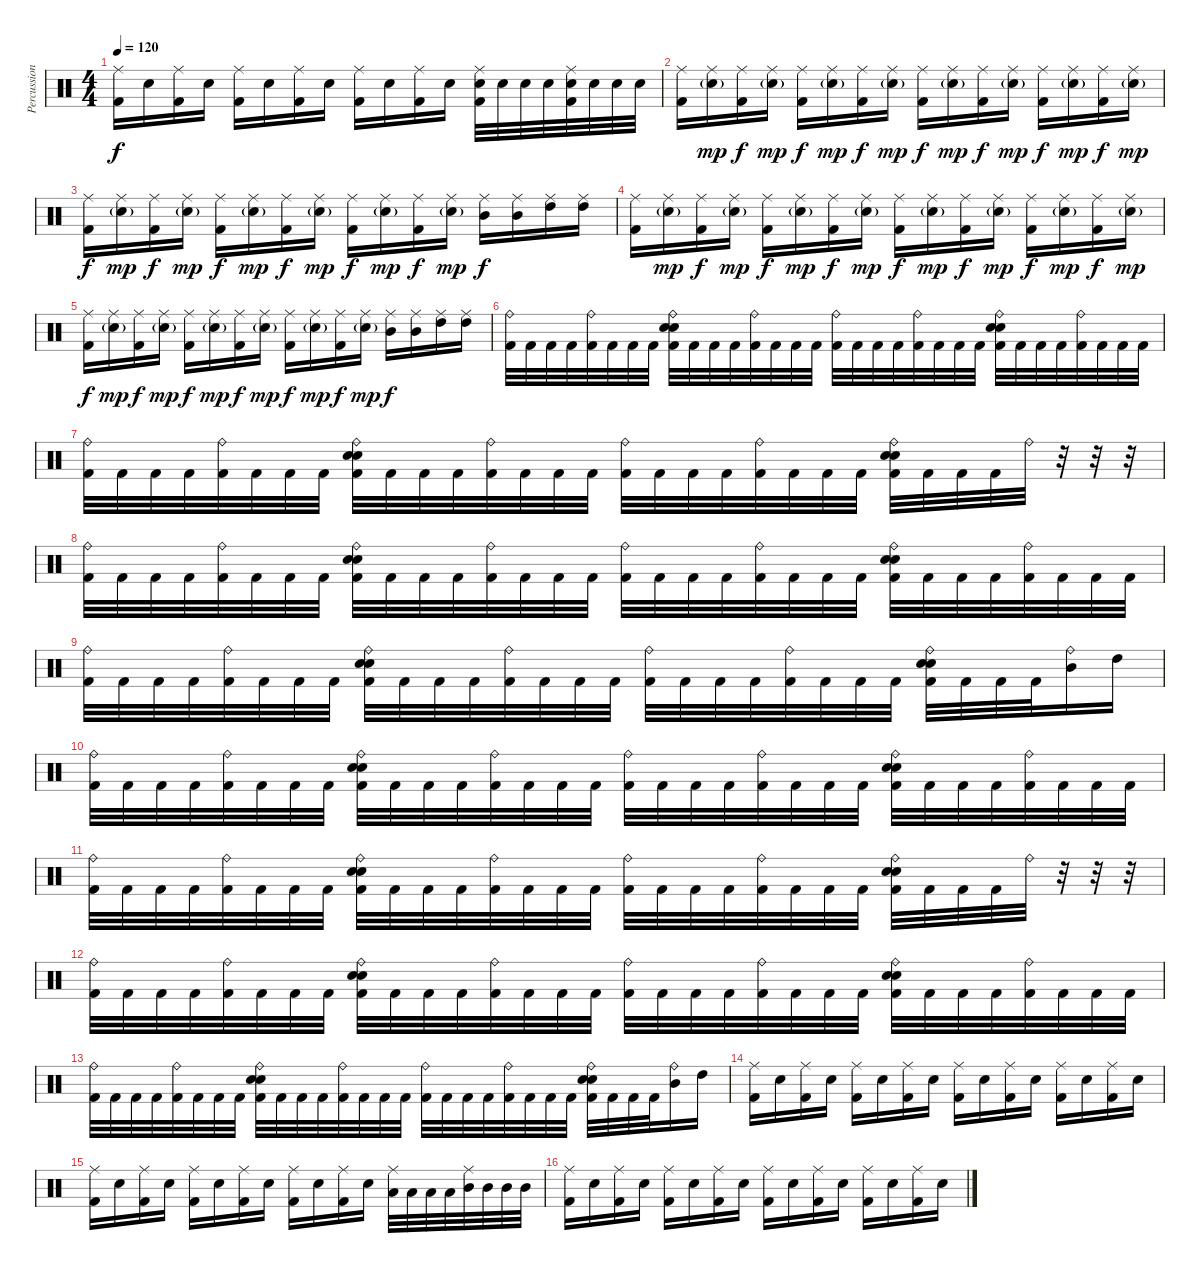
\track ("Percussion" "Percussion") {instrument percussion}
\staff {score}
\articulation defaults
\ts (4 4)
\tempo 120
\clef neutral
\ks c
("Ride (middle)" "Kick (hit) 2").16{dy f} "Snare (hit) 2".16 ("Ride (middle)" "Kick (hit) 2").16 "Snare (hit) 2".16 ("Ride (middle)" "Kick (hit) 2").16 "Snare (hit) 2".16 ("Ride (middle)" "Kick (hit) 2").16 "Snare (hit) 2".16 ("Ride (middle)" "Kick (hit) 2").16 "Snare (hit) 2".16 ("Ride (middle)" "Kick (hit) 2").16 "Snare (hit) 2".16 ("Ride (middle)" "Snare (hit) 2" "Kick (hit) 2").32 "Snare (hit) 2".32 "Snare (hit) 2".32 "Snare (hit) 2".32 ("Ride (middle)" "Snare (hit) 2" "Kick (hit) 2").32 "Snare (hit) 2".32 "Snare (hit) 2".32 "Snare (hit) 2".32 |
("Ride (middle)" "Kick (hit) 2").16 ("Ride (middle)" "Snare (hit) 2"{g}).16{dy mp} ("Ride (middle)" "Kick (hit) 2").16{dy f} ("Ride (middle)" "Snare (hit) 2"{g}).16{dy mp} ("Ride (middle)" "Kick (hit) 2").16{dy f} ("Ride (middle)" "Snare (hit) 2"{g}).16{dy mp} ("Ride (middle)" "Kick (hit) 2").16{dy f} ("Ride (middle)" "Snare (hit) 2"{g}).16{dy mp} ("Ride (middle)" "Kick (hit) 2").16{dy f} ("Ride (middle)" "Snare (hit) 2"{g}).16{dy mp} ("Ride (middle)" "Kick (hit) 2").16{dy f} ("Ride (middle)" "Snare (hit) 2"{g}).16{dy mp} ("Ride (middle)" "Kick (hit) 2").16{dy f} ("Ride (middle)" "Snare (hit) 2"{g}).16{dy mp} ("Ride (middle)" "Kick (hit) 2").16{dy f} ("Ride (middle)" "Snare (hit) 2"{g}).16{dy mp} |
("Ride (middle)" "Kick (hit) 2").16{dy f} ("Ride (middle)" "Snare (hit) 2"{g}).16{dy mp} ("Ride (middle)" "Kick (hit) 2").16{dy f} ("Ride (middle)" "Snare (hit) 2"{g}).16{dy mp} ("Ride (middle)" "Kick (hit) 2").16{dy f} ("Ride (middle)" "Snare (hit) 2"{g}).16{dy mp} ("Ride (middle)" "Kick (hit) 2").16{dy f} ("Ride (middle)" "Snare (hit) 2"{g}).16{dy mp} ("Ride (middle)" "Kick (hit) 2").16{dy f} ("Ride (middle)" "Snare (hit) 2"{g}).16{dy mp} ("Ride (middle)" "Kick (hit) 2").16{dy f} ("Ride (middle)" "Snare (hit) 2"{g}).16{dy mp} ("Ride (middle)" "Mid Tom (hit)").16{dy f} ("Ride (middle)" "Mid Tom (hit)").16 ("Ride (middle)" "High Tom (hit)").16 ("Ride (middle)" "High Tom (hit)").16 |
("Ride (middle)" "Kick (hit) 2").16 ("Ride (middle)" "Snare (hit) 2"{g}).16{dy mp} ("Ride (middle)" "Kick (hit) 2").16{dy f} ("Ride (middle)" "Snare (hit) 2"{g}).16{dy mp} ("Ride (middle)" "Kick (hit) 2").16{dy f} ("Ride (middle)" "Snare (hit) 2"{g}).16{dy mp} ("Ride (middle)" "Kick (hit) 2").16{dy f} ("Ride (middle)" "Snare (hit) 2"{g}).16{dy mp} ("Ride (middle)" "Kick (hit) 2").16{dy f} ("Ride (middle)" "Snare (hit) 2"{g}).16{dy mp} ("Ride (middle)" "Kick (hit) 2").16{dy f} ("Ride (middle)" "Snare (hit) 2"{g}).16{dy mp} ("Ride (middle)" "Kick (hit) 2").16{dy f} ("Ride (middle)" "Snare (hit) 2"{g}).16{dy mp} ("Ride (middle)" "Kick (hit) 2").16{dy f} ("Ride (middle)" "Snare (hit) 2"{g}).16{dy mp} |
("Ride (middle)" "Kick (hit) 2").16{dy f} ("Ride (middle)" "Snare (hit) 2"{g}).16{dy mp} ("Ride (middle)" "Kick (hit) 2").16{dy f} ("Ride (middle)" "Snare (hit) 2"{g}).16{dy mp} ("Ride (middle)" "Kick (hit) 2").16{dy f} ("Ride (middle)" "Snare (hit) 2"{g}).16{dy mp} ("Ride (middle)" "Kick (hit) 2").16{dy f} ("Ride (middle)" "Snare (hit) 2"{g}).16{dy mp} ("Ride (middle)" "Kick (hit) 2").16{dy f} ("Ride (middle)" "Snare (hit) 2"{g}).16{dy mp} ("Ride (middle)" "Kick (hit) 2").16{dy f} ("Ride (middle)" "Snare (hit) 2"{g}).16{dy mp} ("Ride (middle)" "Mid Tom (hit)").16{dy f} ("Ride (middle)" "Mid Tom (hit)").16 ("Ride (middle)" "High Tom (hit)").16 ("Ride (middle)" "High Tom (hit)").16 |
("Ride (bell)" "Kick (hit) 2").32 "Kick (hit) 2".32 "Kick (hit) 2".32 "Kick (hit) 2".32 ("Ride (bell)" "Kick (hit) 2").32 "Kick (hit) 2".32 "Kick (hit) 2".32 "Kick (hit) 2".32 ("Ride (bell)" "Electric Snare (hit)" "Snare (hit) 2" "Kick (hit) 2").32 "Kick (hit) 2".32 "Kick (hit) 2".32 "Kick (hit) 2".32 ("Ride (bell)" "Kick (hit) 2").32 "Kick (hit) 2".32 "Kick (hit) 2".32 "Kick (hit) 2".32 ("Ride (bell)" "Kick (hit) 2").32 "Kick (hit) 2".32 "Kick (hit) 2".32 "Kick (hit) 2".32 ("Ride (bell)" "Kick (hit) 2").32 "Kick (hit) 2".32 "Kick (hit) 2".32 "Kick (hit) 2".32 ("Ride (bell)" "Electric Snare (hit)" "Snare (hit) 2" "Kick (hit) 2").32 "Kick (hit) 2".32 "Kick (hit) 2".32 "Kick (hit) 2".32 ("Ride (bell)" "Kick (hit) 2").32 "Kick (hit) 2".32 "Kick (hit) 2".32 "Kick (hit) 2".32 |
("Ride (bell)" "Kick (hit) 2").32 "Kick (hit) 2".32 "Kick (hit) 2".32 "Kick (hit) 2".32 ("Ride (bell)" "Kick (hit) 2").32 "Kick (hit) 2".32 "Kick (hit) 2".32 "Kick (hit) 2".32 ("Ride (bell)" "Electric Snare (hit)" "Snare (hit) 2" "Kick (hit) 2").32 "Kick (hit) 2".32 "Kick (hit) 2".32 "Kick (hit) 2".32 ("Ride (bell)" "Kick (hit) 2").32 "Kick (hit) 2".32 "Kick (hit) 2".32 "Kick (hit) 2".32 ("Ride (bell)" "Kick (hit) 2").32 "Kick (hit) 2".32 "Kick (hit) 2".32 "Kick (hit) 2".32 ("Ride (bell)" "Kick (hit) 2").32 "Kick (hit) 2".32 "Kick (hit) 2".32 "Kick (hit) 2".32 ("Ride (bell)" "Electric Snare (hit)" "Snare (hit) 2" "Kick (hit) 2").32 "Kick (hit) 2".32 "Kick (hit) 2".32 "Kick (hit) 2".32 "Ride (bell)".32 r.32 r.32 r.32 |
("Ride (bell)" "Kick (hit) 2").32 "Kick (hit) 2".32 "Kick (hit) 2".32 "Kick (hit) 2".32 ("Ride (bell)" "Kick (hit) 2").32 "Kick (hit) 2".32 "Kick (hit) 2".32 "Kick (hit) 2".32 ("Ride (bell)" "Electric Snare (hit)" "Snare (hit) 2" "Kick (hit) 2").32 "Kick (hit) 2".32 "Kick (hit) 2".32 "Kick (hit) 2".32 ("Ride (bell)" "Kick (hit) 2").32 "Kick (hit) 2".32 "Kick (hit) 2".32 "Kick (hit) 2".32 ("Ride (bell)" "Kick (hit) 2").32 "Kick (hit) 2".32 "Kick (hit) 2".32 "Kick (hit) 2".32 ("Ride (bell)" "Kick (hit) 2").32 "Kick (hit) 2".32 "Kick (hit) 2".32 "Kick (hit) 2".32 ("Ride (bell)" "Electric Snare (hit)" "Snare (hit) 2" "Kick (hit) 2").32 "Kick (hit) 2".32 "Kick (hit) 2".32 "Kick (hit) 2".32 ("Ride (bell)" "Kick (hit) 2").32 "Kick (hit) 2".32 "Kick (hit) 2".32 "Kick (hit) 2".32 |
("Ride (bell)" "Kick (hit) 2").32 "Kick (hit) 2".32 "Kick (hit) 2".32 "Kick (hit) 2".32 ("Ride (bell)" "Kick (hit) 2").32 "Kick (hit) 2".32 "Kick (hit) 2".32 "Kick (hit) 2".32 ("Ride (bell)" "Electric Snare (hit)" "Snare (hit) 2" "Kick (hit) 2").32 "Kick (hit) 2".32 "Kick (hit) 2".32 "Kick (hit) 2".32 ("Ride (bell)" "Kick (hit) 2").32 "Kick (hit) 2".32 "Kick (hit) 2".32 "Kick (hit) 2".32 ("Ride (bell)" "Kick (hit) 2").32 "Kick (hit) 2".32 "Kick (hit) 2".32 "Kick (hit) 2".32 ("Ride (bell)" "Kick (hit) 2").32 "Kick (hit) 2".32 "Kick (hit) 2".32 "Kick (hit) 2".32 ("Ride (bell)" "Electric Snare (hit)" "Snare (hit) 2" "Kick (hit) 2").32 "Kick (hit) 2".32 "Kick (hit) 2".32 "Kick (hit) 2".32 ("Ride (bell)" "Mid Tom (hit)").16 "High Tom (hit)".16 |
("Ride (bell)" "Kick (hit) 2").32 "Kick (hit) 2".32 "Kick (hit) 2".32 "Kick (hit) 2".32 ("Ride (bell)" "Kick (hit) 2").32 "Kick (hit) 2".32 "Kick (hit) 2".32 "Kick (hit) 2".32 ("Ride (bell)" "Electric Snare (hit)" "Snare (hit) 2" "Kick (hit) 2").32 "Kick (hit) 2".32 "Kick (hit) 2".32 "Kick (hit) 2".32 ("Ride (bell)" "Kick (hit) 2").32 "Kick (hit) 2".32 "Kick (hit) 2".32 "Kick (hit) 2".32 ("Ride (bell)" "Kick (hit) 2").32 "Kick (hit) 2".32 "Kick (hit) 2".32 "Kick (hit) 2".32 ("Ride (bell)" "Kick (hit) 2").32 "Kick (hit) 2".32 "Kick (hit) 2".32 "Kick (hit) 2".32 ("Ride (bell)" "Electric Snare (hit)" "Snare (hit) 2" "Kick (hit) 2").32 "Kick (hit) 2".32 "Kick (hit) 2".32 "Kick (hit) 2".32 ("Ride (bell)" "Kick (hit) 2").32 "Kick (hit) 2".32 "Kick (hit) 2".32 "Kick (hit) 2".32 |
("Ride (bell)" "Kick (hit) 2").32 "Kick (hit) 2".32 "Kick (hit) 2".32 "Kick (hit) 2".32 ("Ride (bell)" "Kick (hit) 2").32 "Kick (hit) 2".32 "Kick (hit) 2".32 "Kick (hit) 2".32 ("Ride (bell)" "Electric Snare (hit)" "Snare (hit) 2" "Kick (hit) 2").32 "Kick (hit) 2".32 "Kick (hit) 2".32 "Kick (hit) 2".32 ("Ride (bell)" "Kick (hit) 2").32 "Kick (hit) 2".32 "Kick (hit) 2".32 "Kick (hit) 2".32 ("Ride (bell)" "Kick (hit) 2").32 "Kick (hit) 2".32 "Kick (hit) 2".32 "Kick (hit) 2".32 ("Ride (bell)" "Kick (hit) 2").32 "Kick (hit) 2".32 "Kick (hit) 2".32 "Kick (hit) 2".32 ("Ride (bell)" "Electric Snare (hit)" "Snare (hit) 2" "Kick (hit) 2").32 "Kick (hit) 2".32 "Kick (hit) 2".32 "Kick (hit) 2".32 "Ride (bell)".32 r.32 r.32 r.32 |
("Ride (bell)" "Kick (hit) 2").32 "Kick (hit) 2".32 "Kick (hit) 2".32 "Kick (hit) 2".32 ("Ride (bell)" "Kick (hit) 2").32 "Kick (hit) 2".32 "Kick (hit) 2".32 "Kick (hit) 2".32 ("Ride (bell)" "Electric Snare (hit)" "Snare (hit) 2" "Kick (hit) 2").32 "Kick (hit) 2".32 "Kick (hit) 2".32 "Kick (hit) 2".32 ("Ride (bell)" "Kick (hit) 2").32 "Kick (hit) 2".32 "Kick (hit) 2".32 "Kick (hit) 2".32 ("Ride (bell)" "Kick (hit) 2").32 "Kick (hit) 2".32 "Kick (hit) 2".32 "Kick (hit) 2".32 ("Ride (bell)" "Kick (hit) 2").32 "Kick (hit) 2".32 "Kick (hit) 2".32 "Kick (hit) 2".32 ("Ride (bell)" "Electric Snare (hit)" "Snare (hit) 2" "Kick (hit) 2").32 "Kick (hit) 2".32 "Kick (hit) 2".32 "Kick (hit) 2".32 ("Ride (bell)" "Kick (hit) 2").32 "Kick (hit) 2".32 "Kick (hit) 2".32 "Kick (hit) 2".32 |
("Ride (bell)" "Kick (hit) 2").32 "Kick (hit) 2".32 "Kick (hit) 2".32 "Kick (hit) 2".32 ("Ride (bell)" "Kick (hit) 2").32 "Kick (hit) 2".32 "Kick (hit) 2".32 "Kick (hit) 2".32 ("Ride (bell)" "Electric Snare (hit)" "Snare (hit) 2" "Kick (hit) 2").32 "Kick (hit) 2".32 "Kick (hit) 2".32 "Kick (hit) 2".32 ("Ride (bell)" "Kick (hit) 2").32 "Kick (hit) 2".32 "Kick (hit) 2".32 "Kick (hit) 2".32 ("Ride (bell)" "Kick (hit) 2").32 "Kick (hit) 2".32 "Kick (hit) 2".32 "Kick (hit) 2".32 ("Ride (bell)" "Kick (hit) 2").32 "Kick (hit) 2".32 "Kick (hit) 2".32 "Kick (hit) 2".32 ("Ride (bell)" "Electric Snare (hit)" "Snare (hit) 2" "Kick (hit) 2").32 "Kick (hit) 2".32 "Kick (hit) 2".32 "Kick (hit) 2".32 ("Ride (bell)" "Mid Tom (hit)").16 "High Tom (hit)".16 |
("Ride (middle)" "Kick (hit) 2").16 "Snare (hit) 2".16 ("Ride (middle)" "Kick (hit) 2").16 "Snare (hit) 2".16 ("Ride (middle)" "Kick (hit) 2").16 "Snare (hit) 2".16 ("Ride (middle)" "Kick (hit) 2").16 "Snare (hit) 2".16 ("Ride (middle)" "Kick (hit) 2").16 "Snare (hit) 2".16 ("Ride (middle)" "Kick (hit) 2").16 "Snare (hit) 2".16 ("Ride (middle)" "Kick (hit) 2").16 "Snare (hit) 2".16 ("Ride (middle)" "Kick (hit) 2").16 "Snare (hit) 2".16 |
("Ride (middle)" "Kick (hit) 2").16 "Snare (hit) 2".16 ("Ride (middle)" "Kick (hit) 2").16 "Snare (hit) 2".16 ("Ride (middle)" "Kick (hit) 2").16 "Snare (hit) 2".16 ("Ride (middle)" "Kick (hit) 2").16 "Snare (hit) 2".16 ("Ride (middle)" "Kick (hit) 2").16 "Snare (hit) 2".16 ("Ride (middle)" "Kick (hit) 2").16 "Snare (hit) 2".16 ("Ride (middle)" "Low Tom (hit)").32 "Low Tom (hit)".32 "Low Tom (hit)".32 "Low Tom (hit)".32 ("Ride (middle)" "Mid Tom (hit)").32 "Mid Tom (hit)".32 "Mid Tom (hit)".32 "Mid Tom (hit)".32 |
("Ride (middle)" "Kick (hit) 2").16 "Snare (hit) 2".16 ("Ride (middle)" "Kick (hit) 2").16 "Snare (hit) 2".16 ("Ride (middle)" "Kick (hit) 2").16 "Snare (hit) 2".16 ("Ride (middle)" "Kick (hit) 2").16 "Snare (hit) 2".16 ("Ride (middle)" "Kick (hit) 2").16 "Snare (hit) 2".16 ("Ride (middle)" "Kick (hit) 2").16 "Snare (hit) 2".16 ("Ride (middle)" "Kick (hit) 2").16 "Snare (hit) 2".16 ("Ride (middle)" "Kick (hit) 2").16 "Snare (hit) 2".16
